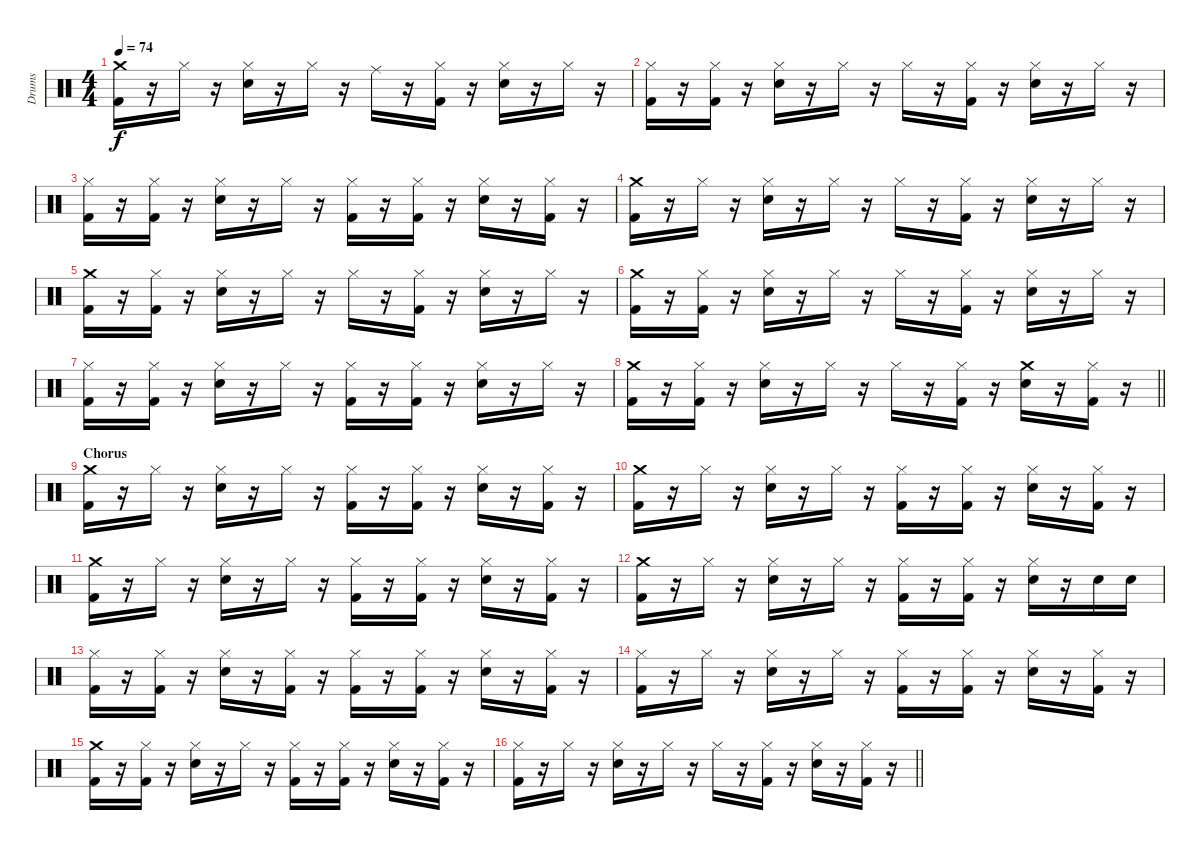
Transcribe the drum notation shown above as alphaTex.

\track ("Drums" "Drums") {instrument percussion}
\staff {score}
\articulation defaults
\ts (4 4)
\tempo 74
\clef neutral
\ks c
("Crash medium (hit)" "Kick (hit) 2").16{dy f} r.16 "Hi-Hat (closed)".16 r.16 ("Hi-Hat (closed)" "Snare (hit) 2").16 r.16 "Hi-Hat (closed)".16 r.16 "Ride (middle)".16 r.16 ("Hi-Hat (closed)" "Kick (hit) 2").16 r.16 ("Hi-Hat (closed)" "Snare (hit) 2").16 r.16 "Hi-Hat (closed)".16 r.16 |
("Hi-Hat (closed)" "Kick (hit) 2").16 r.16 ("Hi-Hat (closed)" "Kick (hit) 2").16 r.16 ("Hi-Hat (closed)" "Snare (hit) 2").16 r.16 "Hi-Hat (closed)".16 r.16 "Hi-Hat (closed)".16 r.16 ("Hi-Hat (closed)" "Kick (hit) 2").16 r.16 ("Hi-Hat (closed)" "Snare (hit) 2").16 r.16 "Hi-Hat (closed)".16 r.16 |
("Hi-Hat (closed)" "Kick (hit) 2").16 r.16 ("Hi-Hat (closed)" "Kick (hit) 2").16 r.16 ("Hi-Hat (closed)" "Snare (hit) 2").16 r.16 "Hi-Hat (closed)".16 r.16 ("Hi-Hat (closed)" "Kick (hit) 2").16 r.16 ("Hi-Hat (closed)" "Kick (hit) 2").16 r.16 ("Hi-Hat (closed)" "Snare (hit) 2").16 r.16 ("Hi-Hat (closed)" "Kick (hit) 2").16 r.16 |
("Crash medium (hit)" "Kick (hit) 2").16 r.16 "Hi-Hat (closed)".16 r.16 ("Hi-Hat (closed)" "Snare (hit) 2").16 r.16 "Hi-Hat (closed)".16 r.16 "Hi-Hat (closed)".16 r.16 ("Hi-Hat (closed)" "Kick (hit) 2").16 r.16 ("Hi-Hat (closed)" "Snare (hit) 2").16 r.16 "Hi-Hat (closed)".16 r.16 |
("Crash medium (hit)" "Kick (hit) 2").16 r.16 ("Hi-Hat (closed)" "Kick (hit) 2").16 r.16 ("Hi-Hat (closed)" "Snare (hit) 2").16 r.16 "Hi-Hat (closed)".16 r.16 "Hi-Hat (closed)".16 r.16 ("Hi-Hat (closed)" "Kick (hit) 2").16 r.16 ("Hi-Hat (closed)" "Snare (hit) 2").16 r.16 "Hi-Hat (closed)".16 r.16 |
("Crash medium (hit)" "Kick (hit) 2").16 r.16 ("Hi-Hat (closed)" "Kick (hit) 2").16 r.16 ("Hi-Hat (closed)" "Snare (hit) 2").16 r.16 "Hi-Hat (closed)".16 r.16 "Hi-Hat (closed)".16 r.16 ("Hi-Hat (closed)" "Kick (hit) 2").16 r.16 ("Hi-Hat (closed)" "Snare (hit) 2").16 r.16 "Hi-Hat (closed)".16 r.16 |
("Hi-Hat (closed)" "Kick (hit) 2").16 r.16 ("Hi-Hat (closed)" "Kick (hit) 2").16 r.16 ("Hi-Hat (closed)" "Snare (hit) 2").16 r.16 "Hi-Hat (closed)".16 r.16 ("Hi-Hat (closed)" "Kick (hit) 2").16 r.16 ("Hi-Hat (closed)" "Kick (hit) 2").16 r.16 ("Hi-Hat (closed)" "Snare (hit) 2").16 r.16 "Hi-Hat (closed)".16 r.16 |
\barLineRight lightlight
("Crash medium (hit)" "Kick (hit) 2").16 r.16 ("Hi-Hat (closed)" "Kick (hit) 2").16 r.16 ("Hi-Hat (closed)" "Snare (hit) 2").16 r.16 "Hi-Hat (closed)".16 r.16 "Hi-Hat (closed)".16 r.16 ("Hi-Hat (closed)" "Kick (hit) 2").16 r.16 ("Crash medium (hit)" "Snare (hit) 2").16 r.16 ("Hi-Hat (closed)" "Kick (hit) 2").16 r.16 |
\section ("" "Chorus")
("Crash medium (hit)" "Kick (hit) 2").16 r.16 "Hi-Hat (closed)".16 r.16 ("Hi-Hat (closed)" "Snare (hit) 2").16 r.16 "Hi-Hat (closed)".16 r.16 ("Hi-Hat (closed)" "Kick (hit) 2").16 r.16 ("Hi-Hat (closed)" "Kick (hit) 2").16 r.16 ("Hi-Hat (closed)" "Snare (hit) 2").16 r.16 ("Hi-Hat (closed)" "Kick (hit) 2").16 r.16 |
("Crash medium (hit)" "Kick (hit) 2").16 r.16 "Hi-Hat (closed)".16 r.16 ("Hi-Hat (closed)" "Snare (hit) 2").16 r.16 "Hi-Hat (closed)".16 r.16 ("Hi-Hat (closed)" "Kick (hit) 2").16 r.16 ("Hi-Hat (closed)" "Kick (hit) 2").16 r.16 ("Hi-Hat (closed)" "Snare (hit) 2").16 r.16 ("Hi-Hat (closed)" "Kick (hit) 2").16 r.16 |
("Crash medium (hit)" "Kick (hit) 2").16 r.16 "Hi-Hat (closed)".16 r.16 ("Hi-Hat (closed)" "Snare (hit) 2").16 r.16 "Hi-Hat (closed)".16 r.16 ("Hi-Hat (closed)" "Kick (hit) 2").16 r.16 ("Hi-Hat (closed)" "Kick (hit) 2").16 r.16 ("Hi-Hat (closed)" "Snare (hit) 2").16 r.16 ("Hi-Hat (closed)" "Kick (hit) 2").16 r.16 |
("Crash medium (hit)" "Kick (hit) 2").16 r.16 "Hi-Hat (closed)".16 r.16 ("Hi-Hat (closed)" "Snare (hit) 2").16 r.16 "Hi-Hat (closed)".16 r.16 ("Hi-Hat (closed)" "Kick (hit) 2").16 r.16 ("Hi-Hat (closed)" "Kick (hit) 2").16 r.16 ("Hi-Hat (closed)" "Snare (hit) 2").16 r.16 "Snare (hit) 2".16 "Snare (hit) 2".16 |
("Hi-Hat (closed)" "Kick (hit) 2").16 r.16 ("Hi-Hat (closed)" "Kick (hit) 2").16 r.16 ("Hi-Hat (closed)" "Snare (hit) 2").16 r.16 ("Hi-Hat (closed)" "Kick (hit) 2").16 r.16 ("Hi-Hat (closed)" "Kick (hit) 2").16 r.16 ("Hi-Hat (closed)" "Kick (hit) 2").16 r.16 ("Hi-Hat (closed)" "Snare (hit) 2").16 r.16 ("Hi-Hat (closed)" "Kick (hit) 2").16 r.16 |
("Hi-Hat (closed)" "Kick (hit) 2").16 r.16 "Hi-Hat (closed)".16 r.16 ("Hi-Hat (closed)" "Snare (hit) 2").16 r.16 "Hi-Hat (closed)".16 r.16 ("Hi-Hat (closed)" "Kick (hit) 2").16 r.16 ("Hi-Hat (closed)" "Kick (hit) 2").16 r.16 ("Hi-Hat (closed)" "Snare (hit) 2").16 r.16 ("Hi-Hat (closed)" "Kick (hit) 2").16 r.16 |
("Crash medium (hit)" "Kick (hit) 2").16 r.16 ("Hi-Hat (closed)" "Kick (hit) 2").16 r.16 ("Hi-Hat (closed)" "Snare (hit) 2").16 r.16 "Hi-Hat (closed)".16 r.16 ("Hi-Hat (closed)" "Kick (hit) 2").16 r.16 ("Hi-Hat (closed)" "Kick (hit) 2").16 r.16 ("Hi-Hat (closed)" "Snare (hit) 2").16 r.16 ("Hi-Hat (closed)" "Kick (hit) 2").16 r.16 |
\barLineRight lightlight
("Hi-Hat (closed)" "Kick (hit) 2").16 r.16 "Hi-Hat (closed)".16 r.16 ("Hi-Hat (closed)" "Snare (hit) 2").16 r.16 "Hi-Hat (closed)".16 r.16 "Hi-Hat (closed)".16 r.16 ("Hi-Hat (closed)" "Kick (hit) 2").16 r.16 ("Hi-Hat (closed)" "Snare (hit) 2").16 r.16 ("Hi-Hat (closed)" "Kick (hit) 2").16 r.16
